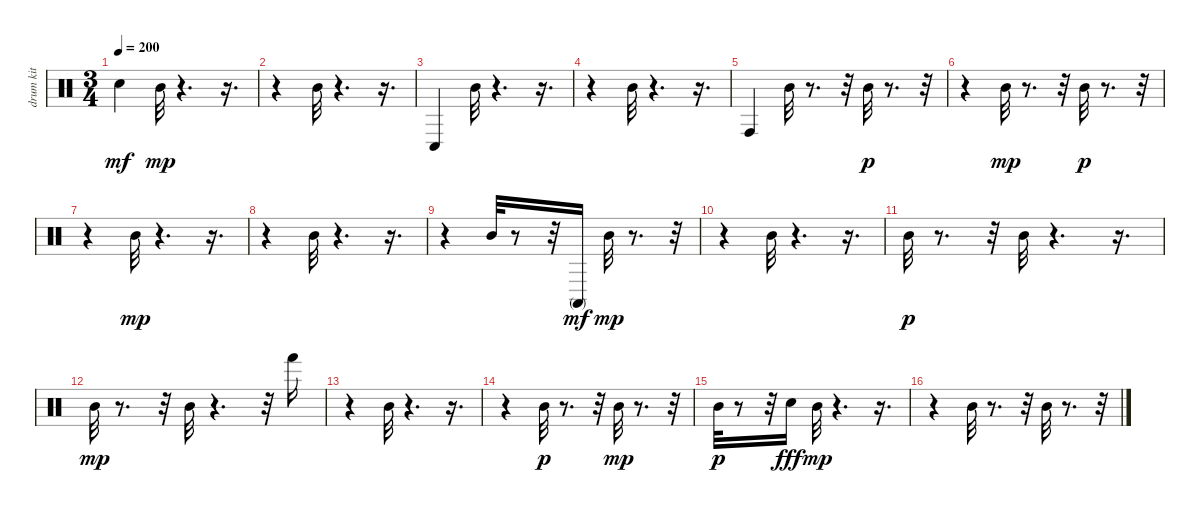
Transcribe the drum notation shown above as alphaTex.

\track (" drum kit (hi-hat/cymbals)" " drum kit ") {instrument percussion}
\staff {score}
\articulation defaults
\ts (3 4)
\tempo 200
\clef neutral
\ks c "Snare (hit)".4{dy mf} "Mid Tom (hit)".32{dy mp}
r.4{d} r.16{d} |
r.4 "Mid Tom (hit)".32 r.4{d} r.16{d} |
"Conga low (hit)".4 "Mid Tom (hit)".32 r.4{d} r.16{d} |
r.4 "Mid Tom (hit)".32 r.4{d} r.16{d} |
"Conga high (hit)".4 "Mid Tom (hit)".32 r.8{d} r.32 "Mid Tom (hit)".32{dy p} r.8{d} r.32 |
r.4 "Mid Tom (hit)".32{dy mp} r.8{d} r.32 "Mid Tom (hit)".32{dy p} r.8{d} r.32 |
r.4 "Mid Tom (hit)".32{dy mp} r.4{d} r.16{d} |
r.4 "Mid Tom (hit)".32 r.4{d} r.16{d} |
r.4 "Mid Tom (hit)".32 r.8 r.32 "Conga high (mute)".16{dy mf} "Mid Tom (hit)".32{dy mp} r.8{d} r.32 |
r.4 "Mid Tom (hit)".32 r.4{d} r.16{d} |
"Mid Tom (hit)".32{dy p} r.8{d} r.32 "Mid Tom (hit)".32 r.4{d} r.16{d} |
"Mid Tom (hit)".32{dy mp} r.8{d} r.32 "Mid Tom (hit)".32 r.4{d} r.32 "Hand (hit)".16 |
r.4 "Mid Tom (hit)".32 r.4{d} r.16{d} |
r.4 "Mid Tom (hit)".32{dy p} r.8{d} r.32 "Mid Tom (hit)".32{dy mp} r.8{d} r.32 |
"Mid Tom (hit)".32{dy p} r.8 r.32 "Snare (hit)".16{dy fff} "Mid Tom (hit)".32{dy mp} r.4{d} r.16{d} |
r.4 "Mid Tom (hit)".32 r.8{d} r.32 "Mid Tom (hit)".32 r.8{d} r.32
